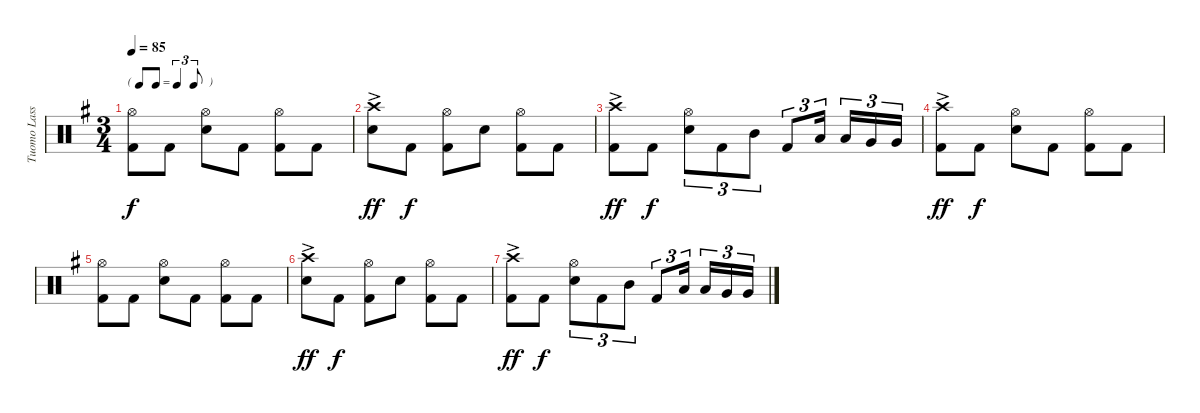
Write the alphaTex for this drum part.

\track ("Tuomo Lassila" "Tuomo Lass") {instrument percussion}
\staff {score}
\articulation defaults
\ts (3 4)
\tf triplet8th
\tempo 85
\clef neutral
\ks g
("Hi-Hat (open)" "Kick (hit) 2").8{dy f} "Kick (hit) 2".8 ("Hi-Hat (open)" "Electric Snare (hit)").8 "Kick (hit) 2".8 ("Hi-Hat (open)" "Kick (hit) 2").8 "Kick (hit) 2".8 |
("Crash high (hit)"{ac} "Electric Snare (hit)"{ac}).8{dy ff} "Kick (hit) 2".8{dy f} ("Hi-Hat (open)" "Kick (hit) 2").8 "Electric Snare (hit)".8 ("Hi-Hat (open)" "Kick (hit) 2").8 "Kick (hit) 2".8 |
("Crash high (hit)"{ac} "Kick (hit) 2"{ac}).8{dy ff} "Kick (hit) 2".8{dy f} ("Hi-Hat (open)" "Electric Snare (hit)").8{tu (3 2)} "Kick (hit) 2".8{tu (3 2)} "Mid Tom (hit)".8{tu (3 2)} "Kick (hit) 2".8{tu (3 2)} "Low Tom (hit)".16{tu (3 2) beam splitsecondary} "Low Tom (hit)".16{tu (3 2)} "Very Low Tom (hit)".16{tu (3 2)} "Very Low Tom (hit)".16{tu (3 2)} |
("Crash high (hit)"{ac} "Kick (hit) 2"{ac}).8{dy ff} "Kick (hit) 2".8{dy f} ("Hi-Hat (open)" "Electric Snare (hit)").8 "Kick (hit) 2".8 ("Hi-Hat (open)" "Kick (hit) 2").8 "Kick (hit) 2".8 |
("Hi-Hat (open)" "Kick (hit) 2").8 "Kick (hit) 2".8 ("Hi-Hat (open)" "Electric Snare (hit)").8 "Kick (hit) 2".8 ("Hi-Hat (open)" "Kick (hit) 2").8 "Kick (hit) 2".8 |
("Crash high (hit)"{ac} "Electric Snare (hit)"{ac}).8{dy ff} "Kick (hit) 2".8{dy f} ("Hi-Hat (open)" "Kick (hit) 2").8 "Electric Snare (hit)".8 ("Hi-Hat (open)" "Kick (hit) 2").8 "Kick (hit) 2".8 |
("Crash high (hit)"{ac} "Kick (hit) 2"{ac}).8{dy ff} "Kick (hit) 2".8{dy f} ("Hi-Hat (open)" "Electric Snare (hit)").8{tu (3 2)} "Kick (hit) 2".8{tu (3 2)} "Mid Tom (hit)".8{tu (3 2)} "Kick (hit) 2".8{tu (3 2)} "Low Tom (hit)".16{tu (3 2) beam splitsecondary} "Low Tom (hit)".16{tu (3 2)} "Very Low Tom (hit)".16{tu (3 2)} "Very Low Tom (hit)".16{tu (3 2)}
